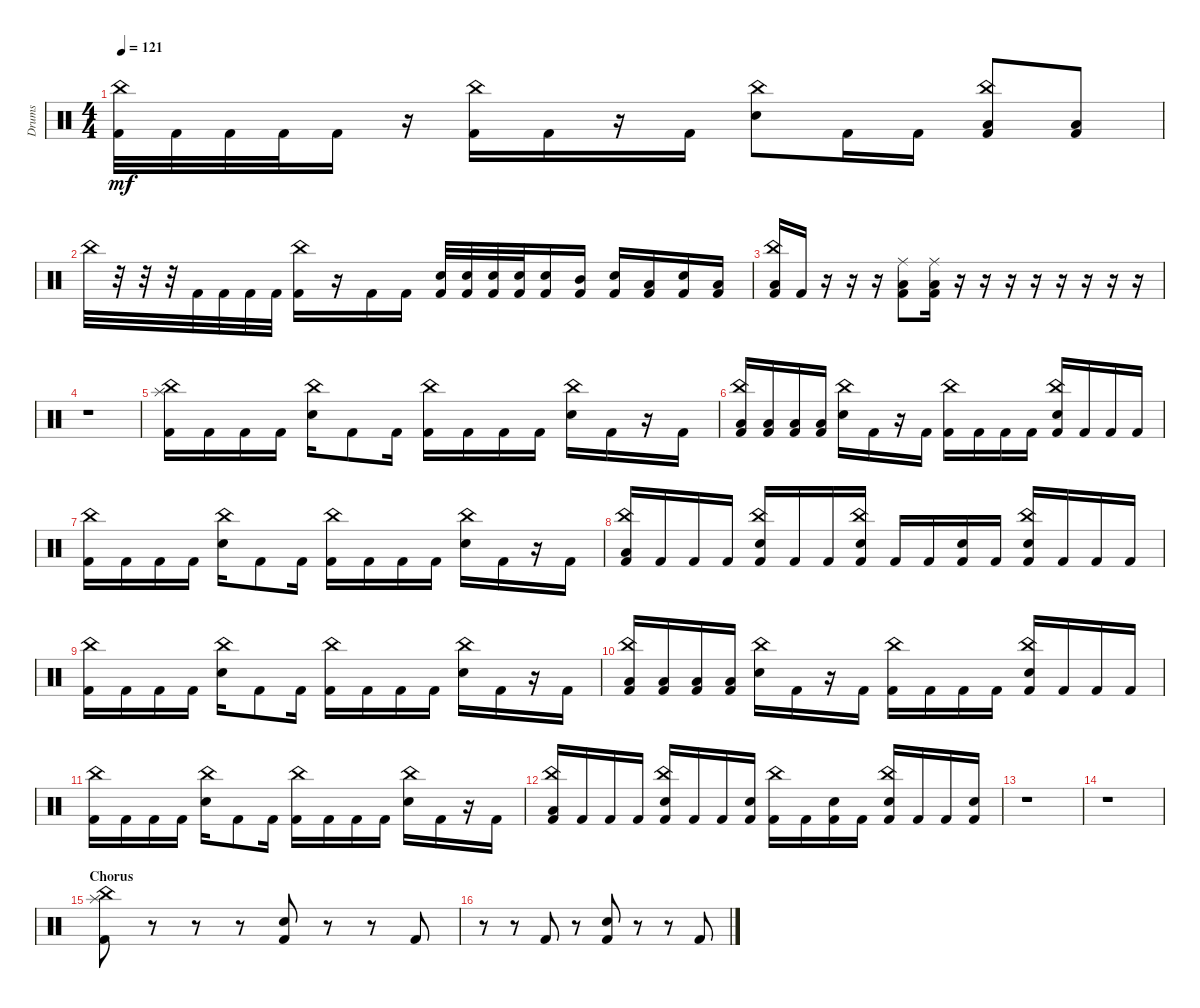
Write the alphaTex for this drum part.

\track ("Drums" "Drums") {instrument percussion}
\staff {score}
\articulation defaults
\ts (4 4)
\tempo 121
\clef neutral
\ks c
("Kick (hit) 2" "China (hit)").32{dy mf} "Kick (hit) 2".32 "Kick (hit) 2".32 "Kick (hit) 2".32 "Kick (hit) 2".16 r.16 ("Kick (hit) 2" "China (hit)").16 "Kick (hit) 2".16 r.16 "Kick (hit) 2".16 ("Snare (hit) 2" "China (hit)").8 "Kick (hit) 2".16 "Kick (hit) 2".16 ("Kick (hit) 2" "Low Tom (hit)" "China (hit)").8 ("Kick (hit) 2" "Low Tom (hit)").8 |
"China (hit)".32 r.32 r.32 r.32 "Kick (hit) 2".32 "Kick (hit) 2".32 "Kick (hit) 2".32 "Kick (hit) 2".32 ("Kick (hit) 2" "China (hit)").16 r.16 "Kick (hit) 2".16 "Kick (hit) 2".16 ("Kick (hit) 2" "Snare (hit) 2").32 ("Kick (hit) 2" "Snare (hit) 2").32 ("Kick (hit) 2" "Snare (hit) 2").32 ("Kick (hit) 2" "Snare (hit) 2").32 ("Kick (hit) 2" "Snare (hit) 2").16 ("Kick (hit) 2" "Mid Tom (hit)").16 ("Kick (hit) 2" "Snare (hit) 2").16 ("Kick (hit) 2" "Low Tom (hit)").16 ("Kick (hit) 2" "Snare (hit) 2").16 ("Kick (hit) 2" "Low Tom (hit)").16 |
("Kick (hit) 2" "Low Tom (hit)" "China (hit)").16 "Kick (hit) 2".16 r.16 r.16 r.16 ("Kick (hit) 2" "Low Tom (hit)" "Ride (middle)").8 ("Kick (hit) 2" "Low Tom (hit)" "Ride (middle)").16 r.16 r.16 r.16 r.16 r.16 r.16 r.16 r.16 |
r.1 |
("Kick (hit) 2" "China (hit)" "Splash (hit)").16 "Kick (hit) 2".16 "Kick (hit) 2".16 "Kick (hit) 2".16 ("Snare (hit) 2" "China (hit)").16 "Kick (hit) 2".8 "Kick (hit) 2".16 ("Kick (hit) 2" "China (hit)").16 "Kick (hit) 2".16 "Kick (hit) 2".16 "Kick (hit) 2".16 ("Snare (hit) 2" "China (hit)").16 "Kick (hit) 2".16 r.16 "Kick (hit) 2".16 |
("Kick (hit) 2" "Low Tom (hit)" "China (hit)").16 ("Kick (hit) 2" "Low Tom (hit)").16 ("Kick (hit) 2" "Low Tom (hit)").16 ("Kick (hit) 2" "Low Tom (hit)").16 ("Snare (hit) 2" "China (hit)").16 "Kick (hit) 2".16 r.16 "Kick (hit) 2".16 ("Kick (hit) 2" "China (hit)").16 "Kick (hit) 2".16 "Kick (hit) 2".16 "Kick (hit) 2".16 ("Kick (hit) 2" "Snare (hit) 2" "China (hit)").16 "Kick (hit) 2".16 "Kick (hit) 2".16 "Kick (hit) 2".16 |
("Kick (hit) 2" "China (hit)").16 "Kick (hit) 2".16 "Kick (hit) 2".16 "Kick (hit) 2".16 ("Snare (hit) 2" "China (hit)").16 "Kick (hit) 2".8 "Kick (hit) 2".16 ("Kick (hit) 2" "China (hit)").16 "Kick (hit) 2".16 "Kick (hit) 2".16 "Kick (hit) 2".16 ("Snare (hit) 2" "China (hit)").16 "Kick (hit) 2".16 r.16 "Kick (hit) 2".16 |
("Kick (hit) 2" "Low Tom (hit)" "China (hit)").16 "Kick (hit) 2".16 "Kick (hit) 2".16 "Kick (hit) 2".16 ("Kick (hit) 2" "Snare (hit) 2" "China (hit)").16 "Kick (hit) 2".16 "Kick (hit) 2".16 ("Kick (hit) 2" "Snare (hit) 2" "China (hit)").16 "Kick (hit) 2".16 "Kick (hit) 2".16 ("Kick (hit) 2" "Snare (hit) 2").16 "Kick (hit) 2".16 ("Kick (hit) 2" "Snare (hit) 2" "China (hit)").16 "Kick (hit) 2".16 "Kick (hit) 2".16 "Kick (hit) 2".16 |
("Kick (hit) 2" "China (hit)").16 "Kick (hit) 2".16 "Kick (hit) 2".16 "Kick (hit) 2".16 ("Snare (hit) 2" "China (hit)").16 "Kick (hit) 2".8 "Kick (hit) 2".16 ("Kick (hit) 2" "China (hit)").16 "Kick (hit) 2".16 "Kick (hit) 2".16 "Kick (hit) 2".16 ("Snare (hit) 2" "China (hit)").16 "Kick (hit) 2".16 r.16 "Kick (hit) 2".16 |
("Kick (hit) 2" "Low Tom (hit)" "China (hit)").16 ("Kick (hit) 2" "Low Tom (hit)").16 ("Kick (hit) 2" "Low Tom (hit)").16 ("Kick (hit) 2" "Low Tom (hit)").16 ("Snare (hit) 2" "China (hit)").16 "Kick (hit) 2".16 r.16 "Kick (hit) 2".16 ("Kick (hit) 2" "China (hit)").16 "Kick (hit) 2".16 "Kick (hit) 2".16 "Kick (hit) 2".16 ("Kick (hit) 2" "Snare (hit) 2" "China (hit)").16 "Kick (hit) 2".16 "Kick (hit) 2".16 "Kick (hit) 2".16 |
("Kick (hit) 2" "China (hit)").16 "Kick (hit) 2".16 "Kick (hit) 2".16 "Kick (hit) 2".16 ("Snare (hit) 2" "China (hit)").16 "Kick (hit) 2".8 "Kick (hit) 2".16 ("Kick (hit) 2" "China (hit)").16 "Kick (hit) 2".16 "Kick (hit) 2".16 "Kick (hit) 2".16 ("Snare (hit) 2" "China (hit)").16 "Kick (hit) 2".16 r.16 "Kick (hit) 2".16 |
("Kick (hit) 2" "Low Tom (hit)" "China (hit)").16 "Kick (hit) 2".16 "Kick (hit) 2".16 "Kick (hit) 2".16 ("Kick (hit) 2" "Snare (hit) 2" "China (hit)").16 "Kick (hit) 2".16 "Kick (hit) 2".16 ("Kick (hit) 2" "Snare (hit) 2").16 ("Kick (hit) 2" "China (hit)").16 "Kick (hit) 2".16 ("Kick (hit) 2" "Snare (hit) 2").16 "Kick (hit) 2".16 ("Kick (hit) 2" "Snare (hit) 2" "China (hit)").16 "Kick (hit) 2".16 "Kick (hit) 2".16 ("Kick (hit) 2" "Snare (hit) 2").16 |
r.1 |
r.1 |
\section ("" "Chorus")
("Kick (hit) 2" "Splash (hit)" "China (hit)").8 r.8 r.8 r.8 ("Kick (hit) 2" "Snare (hit) 2").8 r.8 r.8 "Kick (hit) 2".8 |
r.8 r.8 "Kick (hit) 2".8 r.8 ("Kick (hit) 2" "Snare (hit) 2").8 r.8 r.8 "Kick (hit) 2".8
